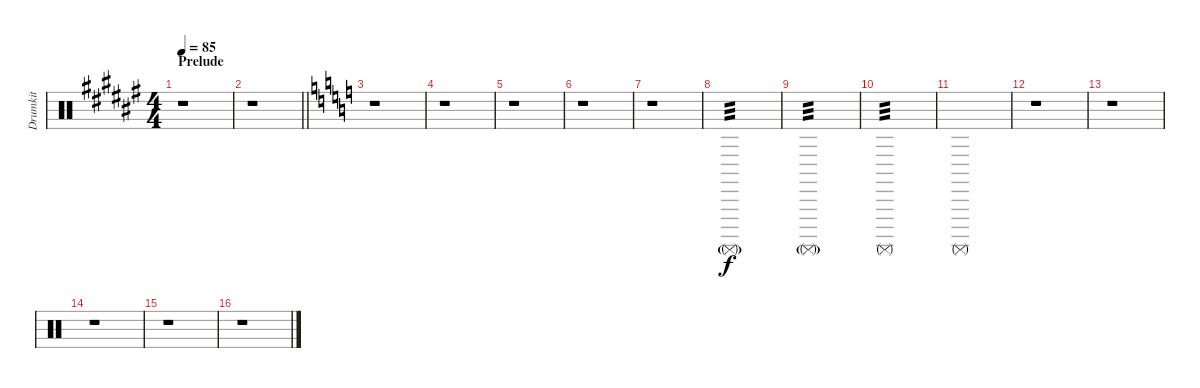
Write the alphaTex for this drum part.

\track ("Drumkit" "Drumkit") {instrument percussion}
\staff {score}
\articulation defaults
\ts (4 4)
\section ("" "Prelude")
\tempo 85
\clef neutral
\ks f#
r.1{dy f} |
\barLineRight lightlight
r.1 |
\ks c
r.1 |
r.1 |
r.1 |
r.1 |
r.1 |
"Surdo (mute)"{g}.1{tp 3} |
"Surdo (mute)"{g}.1{tp 3} |
"Surdo (mute)".1{tp 3} |
"Surdo (mute)".1 |
r.1 |
r.1 |
r.1 |
r.1 |
r.1
